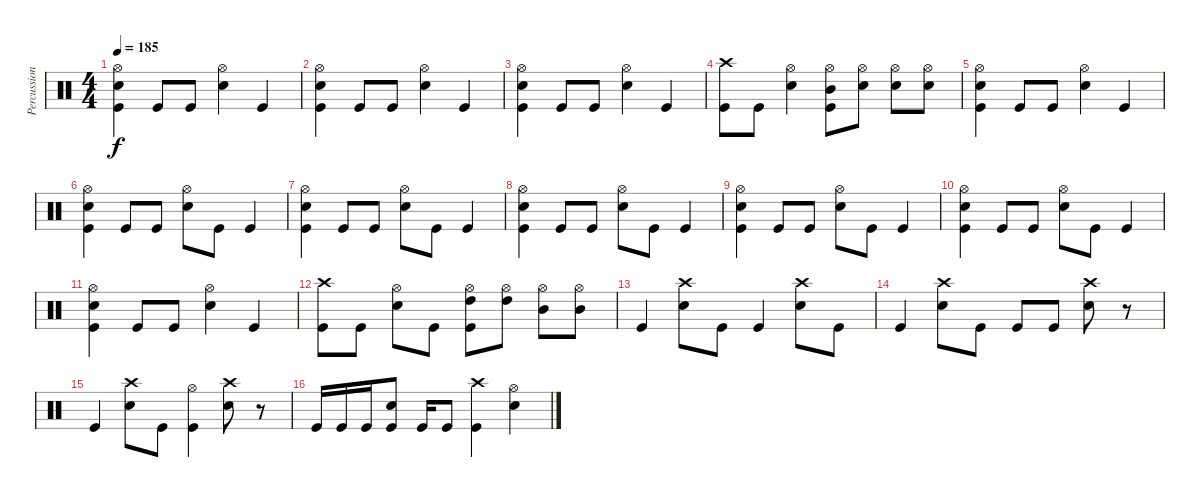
\track ("Percussions" "Percussion") {instrument percussion}
\staff {score}
\articulation defaults
\ts (4 4)
\tempo 185
\clef neutral
\ks c
("Hi-Hat (open)" "Snare (hit) 2" "Kick (hit)").4{dy f} "Kick (hit)".8 "Kick (hit)".8 ("Hi-Hat (open)" "Snare (hit) 2").4 "Kick (hit)".4 |
("Hi-Hat (open)" "Snare (hit) 2" "Kick (hit)").4 "Kick (hit)".8 "Kick (hit)".8 ("Hi-Hat (open)" "Snare (hit) 2").4 "Kick (hit)".4 |
("Hi-Hat (open)" "Snare (hit) 2" "Kick (hit)").4 "Kick (hit)".8 "Kick (hit)".8 ("Hi-Hat (open)" "Snare (hit) 2").4 "Kick (hit)".4 |
("Crash high (hit)" "Kick (hit)").8 "Kick (hit)".8 ("Hi-Hat (open)" "Snare (hit) 2").4 ("Hi-Hat (open)" "Mid Tom (hit)" "Kick (hit)").8 ("Hi-Hat (open)" "Snare (hit) 2").8 ("Hi-Hat (open)" "Snare (hit) 2").8 ("Hi-Hat (open)" "Snare (hit) 2").8 |
("Hi-Hat (open)" "Snare (hit) 2" "Kick (hit)").4 "Kick (hit)".8 "Kick (hit)".8 ("Hi-Hat (open)" "Snare (hit) 2").4 "Kick (hit)".4 |
("Hi-Hat (open)" "Snare (hit) 2" "Kick (hit)").4 "Kick (hit)".8 "Kick (hit)".8 ("Hi-Hat (open)" "Snare (hit) 2").8 "Kick (hit)".8 "Kick (hit)".4 |
("Hi-Hat (open)" "Snare (hit) 2" "Kick (hit)").4 "Kick (hit)".8 "Kick (hit)".8 ("Hi-Hat (open)" "Snare (hit) 2").8 "Kick (hit)".8 "Kick (hit)".4 |
("Hi-Hat (open)" "Snare (hit) 2" "Kick (hit)").4 "Kick (hit)".8 "Kick (hit)".8 ("Hi-Hat (open)" "Snare (hit) 2").8 "Kick (hit)".8 "Kick (hit)".4 |
("Hi-Hat (open)" "Snare (hit) 2" "Kick (hit)").4 "Kick (hit)".8 "Kick (hit)".8 ("Hi-Hat (open)" "Snare (hit) 2").8 "Kick (hit)".8 "Kick (hit)".4 |
("Hi-Hat (open)" "Snare (hit) 2" "Kick (hit)").4 "Kick (hit)".8 "Kick (hit)".8 ("Hi-Hat (open)" "Snare (hit) 2").8 "Kick (hit)".8 "Kick (hit)".4 |
("Hi-Hat (open)" "Snare (hit) 2" "Kick (hit)").4 "Kick (hit)".8 "Kick (hit)".8 ("Hi-Hat (open)" "Snare (hit) 2").4 "Kick (hit)".4 |
("Crash high (hit)" "Kick (hit)").8 "Kick (hit)".8 ("Hi-Hat (open)" "Snare (hit) 2").8 "Kick (hit)".8 ("Hi-Hat (open)" "High Tom (hit)" "Kick (hit)").8 ("Hi-Hat (open)" "High Tom (hit)").8 ("Hi-Hat (open)" "Mid Tom (hit)").8 ("Hi-Hat (open)" "Mid Tom (hit)").8 |
"Kick (hit)".4 ("Crash high (hit)" "Snare (hit) 2").8 "Kick (hit)".8 "Kick (hit)".4 ("Crash high (hit)" "Snare (hit) 2").8 "Kick (hit)".8 |
"Kick (hit)".4 ("Crash high (hit)" "Snare (hit) 2").8 "Kick (hit)".8 "Kick (hit)".8 "Kick (hit)".8 ("Crash high (hit)" "Snare (hit) 2").8 r.8 |
"Kick (hit)".4 ("Crash high (hit)" "Snare (hit) 2").8 "Kick (hit)".8 ("Hi-Hat (open)" "Kick (hit)").4 ("Crash high (hit)" "Snare (hit) 2").8 r.8 |
"Kick (hit)".16 "Kick (hit)".16 "Kick (hit)".16 ("Snare (hit) 2" "Kick (hit)").8 "Kick (hit)".16 "Kick (hit)".8 ("Crash high (hit)" "Kick (hit)").4 ("Hi-Hat (open)" "Snare (hit) 2").4
